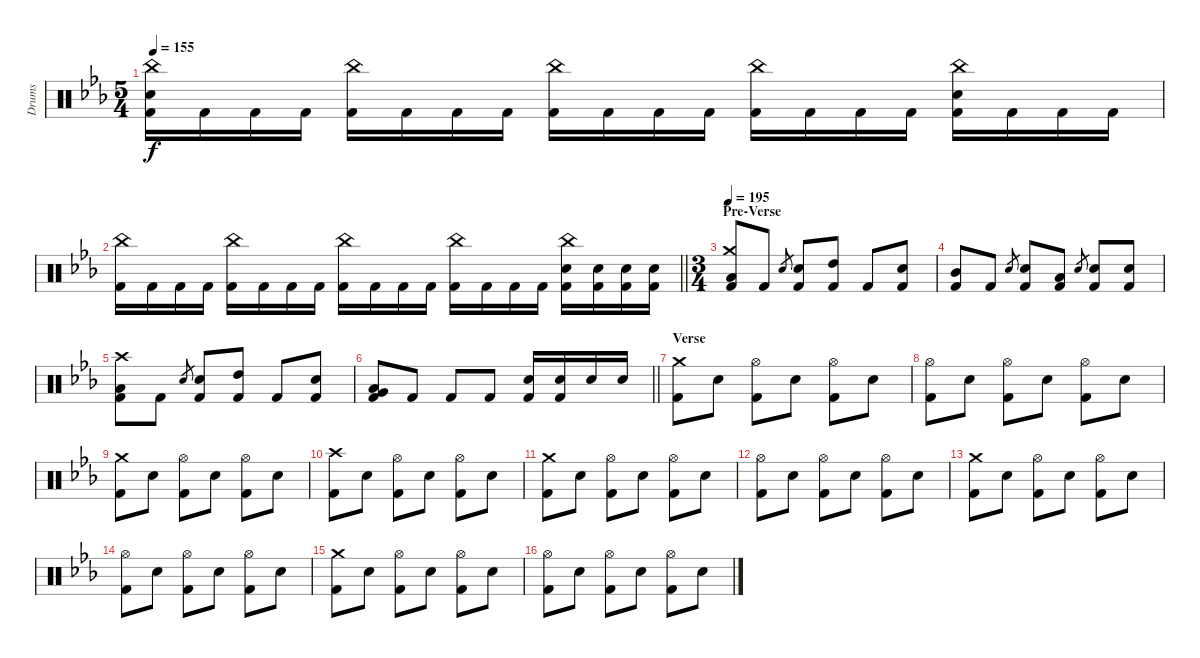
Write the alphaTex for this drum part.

\track ("Drums" "Drums") {instrument percussion}
\staff {score}
\articulation defaults
\ts (5 4)
\tempo 155
\clef neutral
\ks cminor
("China (hit)" "Electric Snare (hit)" "Kick (hit) 2").16{dy f} "Kick (hit) 2".16 "Kick (hit) 2".16 "Kick (hit) 2".16 ("China (hit)" "Kick (hit) 2").16 "Kick (hit) 2".16 "Kick (hit) 2".16 "Kick (hit) 2".16 ("China (hit)" "Kick (hit) 2").16 "Kick (hit) 2".16 "Kick (hit) 2".16 "Kick (hit) 2".16 ("China (hit)" "Kick (hit) 2").16 "Kick (hit) 2".16 "Kick (hit) 2".16 "Kick (hit) 2".16 ("China (hit)" "Electric Snare (hit)" "Kick (hit) 2").16 "Kick (hit) 2".16 "Kick (hit) 2".16 "Kick (hit) 2".16 |
\barLineRight lightlight
("China (hit)" "Kick (hit) 2").16 "Kick (hit) 2".16 "Kick (hit) 2".16 "Kick (hit) 2".16 ("China (hit)" "Kick (hit) 2").16 "Kick (hit) 2".16 "Kick (hit) 2".16 "Kick (hit) 2".16 ("China (hit)" "Kick (hit) 2").16 "Kick (hit) 2".16 "Kick (hit) 2".16 "Kick (hit) 2".16 ("China (hit)" "Kick (hit) 2").16 "Kick (hit) 2".16 "Kick (hit) 2".16 "Kick (hit) 2".16 ("China (hit)" "Electric Snare (hit)" "Kick (hit) 2").16 ("Electric Snare (hit)" "Kick (hit) 2").16 ("Electric Snare (hit)" "Kick (hit) 2").16 ("Electric Snare (hit)" "Kick (hit) 2").16 |
\ts (3 4)
\section ("" "Pre-Verse")
\tempo 195
("Crash medium (hit)" "Low Tom (hit)" "Kick (hit) 2").8 "Kick (hit) 2".8 "Electric Snare (hit)".8{gr} ("Electric Snare (hit)" "Kick (hit) 2").8 ("High Tom (hit)" "Kick (hit) 2").8 "Kick (hit) 2".8 ("Electric Snare (hit)" "Kick (hit) 2").8 |
("Mid Tom (hit)" "Kick (hit) 2").8 "Kick (hit) 2".8 "Electric Snare (hit)".8{gr} ("Electric Snare (hit)" "Kick (hit) 2").8 ("Low Tom (hit)" "Kick (hit) 2").8 "Electric Snare (hit)".8{gr} ("Electric Snare (hit)" "Kick (hit) 2").8 ("Electric Snare (hit)" "Kick (hit) 2").8 |
("Crash high (hit)" "Low Tom (hit)" "Kick (hit) 2").8 "Kick (hit) 2".8 "Electric Snare (hit)".8{gr} ("Electric Snare (hit)" "Kick (hit) 2").8 ("High Tom (hit)" "Kick (hit) 2").8 "Kick (hit) 2".8 ("Electric Snare (hit)" "Kick (hit) 2").8 |
\barLineRight lightlight
("Very Low Tom (hit)" "Low Floor Tom (hit)" "Kick (hit) 2").8 "Kick (hit) 2".8 "Kick (hit) 2".8 "Kick (hit) 2".8 ("Electric Snare (hit)" "Kick (hit) 2").16 ("Electric Snare (hit)" "Kick (hit) 2").16 "Electric Snare (hit)".16 "Electric Snare (hit)".16 |
\section ("" "Verse")
("Crash medium (hit)" "Kick (hit) 2").8 "Electric Snare (hit)".8 ("Hi-Hat (open)" "Kick (hit) 2").8 "Electric Snare (hit)".8 ("Hi-Hat (open)" "Kick (hit) 2").8 "Electric Snare (hit)".8 |
("Hi-Hat (open)" "Kick (hit) 2").8 "Electric Snare (hit)".8 ("Hi-Hat (open)" "Kick (hit) 2").8 "Electric Snare (hit)".8 ("Hi-Hat (open)" "Kick (hit) 2").8 "Electric Snare (hit)".8 |
("Crash medium (hit)" "Kick (hit) 2").8 "Electric Snare (hit)".8 ("Hi-Hat (open)" "Kick (hit) 2").8 "Electric Snare (hit)".8 ("Hi-Hat (open)" "Kick (hit) 2").8 "Electric Snare (hit)".8 |
("Crash high (hit)" "Kick (hit) 2").8 "Electric Snare (hit)".8 ("Hi-Hat (open)" "Kick (hit) 2").8 "Electric Snare (hit)".8 ("Hi-Hat (open)" "Kick (hit) 2").8 "Electric Snare (hit)".8 |
("Crash medium (hit)" "Kick (hit) 2").8 "Electric Snare (hit)".8 ("Hi-Hat (open)" "Kick (hit) 2").8 "Electric Snare (hit)".8 ("Hi-Hat (open)" "Kick (hit) 2").8 "Electric Snare (hit)".8 |
("Hi-Hat (open)" "Kick (hit) 2").8 "Electric Snare (hit)".8 ("Hi-Hat (open)" "Kick (hit) 2").8 "Electric Snare (hit)".8 ("Hi-Hat (open)" "Kick (hit) 2").8 "Electric Snare (hit)".8 |
("Crash medium (hit)" "Kick (hit) 2").8 "Electric Snare (hit)".8 ("Hi-Hat (open)" "Kick (hit) 2").8 "Electric Snare (hit)".8 ("Hi-Hat (open)" "Kick (hit) 2").8 "Electric Snare (hit)".8 |
("Hi-Hat (open)" "Kick (hit) 2").8 "Electric Snare (hit)".8 ("Hi-Hat (open)" "Kick (hit) 2").8 "Electric Snare (hit)".8 ("Hi-Hat (open)" "Kick (hit) 2").8 "Electric Snare (hit)".8 |
("Crash medium (hit)" "Kick (hit) 2").8 "Electric Snare (hit)".8 ("Hi-Hat (open)" "Kick (hit) 2").8 "Electric Snare (hit)".8 ("Hi-Hat (open)" "Kick (hit) 2").8 "Electric Snare (hit)".8 |
("Hi-Hat (open)" "Kick (hit) 2").8 "Electric Snare (hit)".8 ("Hi-Hat (open)" "Kick (hit) 2").8 "Electric Snare (hit)".8 ("Hi-Hat (open)" "Kick (hit) 2").8 "Electric Snare (hit)".8
